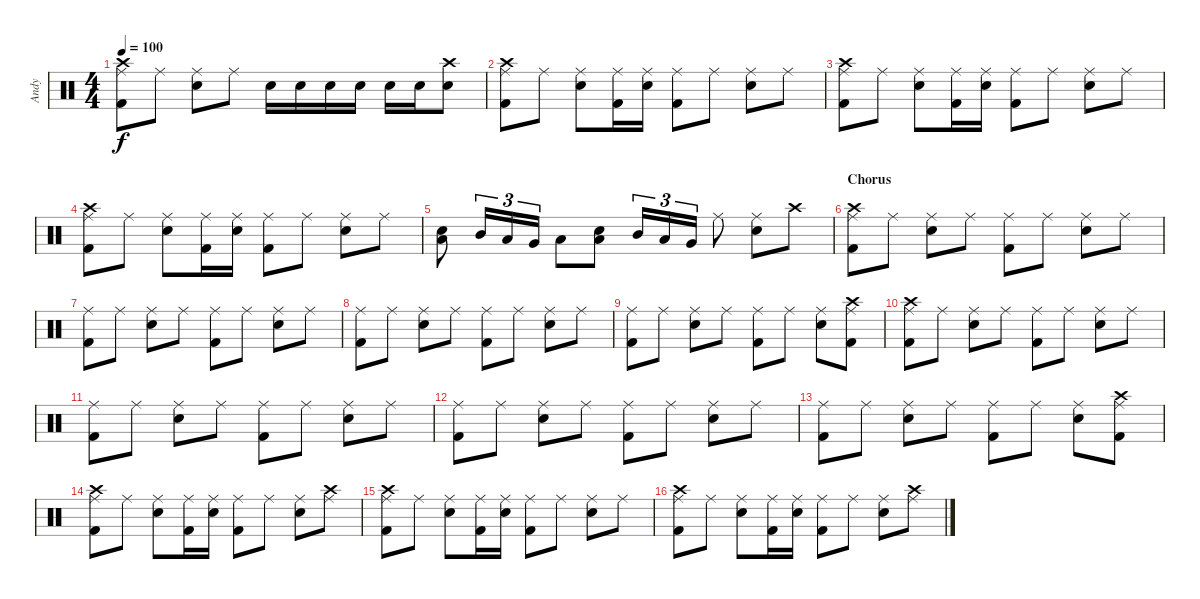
\track ("Andy" "Andy") {instrument percussion}
\staff {score}
\articulation defaults
\ts (4 4)
\tempo 100
\clef neutral
\ks c
("Crash high (hit)" "Ride (middle)" "Kick (hit) 2").8{dy f} "Ride (middle)".8 ("Ride (middle)" "Snare (hit) 2").8 "Ride (middle)".8 "Snare (hit) 2".16 "Snare (hit) 2".16 "Snare (hit) 2".16 "Snare (hit) 2".16 "Snare (hit) 2".16 "Snare (hit) 2".16 ("Crash high (hit)" "Snare (hit) 2").8 |
("Crash high (hit)" "Ride (middle)" "Kick (hit) 2").8 "Ride (middle)".8 ("Ride (middle)" "Snare (hit) 2").8 ("Ride (middle)" "Kick (hit) 2").16 ("Ride (middle)" "Snare (hit) 2").16 ("Ride (middle)" "Kick (hit) 2").8 "Ride (middle)".8 ("Ride (middle)" "Snare (hit) 2").8 "Ride (middle)".8 |
("Crash high (hit)" "Ride (middle)" "Kick (hit) 2").8 "Ride (middle)".8 ("Ride (middle)" "Snare (hit) 2").8 ("Ride (middle)" "Kick (hit) 2").16 ("Ride (middle)" "Snare (hit) 2").16 ("Ride (middle)" "Kick (hit) 2").8 "Ride (middle)".8 ("Ride (middle)" "Snare (hit) 2").8 "Ride (middle)".8 |
("Crash high (hit)" "Ride (middle)" "Kick (hit) 2").8 "Ride (middle)".8 ("Ride (middle)" "Snare (hit) 2").8 ("Ride (middle)" "Kick (hit) 2").16 ("Ride (middle)" "Snare (hit) 2").16 ("Ride (middle)" "Kick (hit) 2").8 "Ride (middle)".8 ("Ride (middle)" "Snare (hit) 2").8 "Ride (middle)".8 |
("Low Floor Tom (hit)" "Snare (hit) 2").8 "Mid Tom (hit)".16{tu (3 2)} "Low Tom (hit)".16{tu (3 2)} "Very Low Tom (hit)".16{tu (3 2)} "Low Floor Tom (hit)".8 ("Low Floor Tom (hit)" "Snare (hit) 2").8 "Mid Tom (hit)".16{tu (3 2)} "Low Tom (hit)".16{tu (3 2)} "Very Low Tom (hit)".16{tu (3 2)} "Ride (middle)".8 ("Ride (middle)" "Snare (hit) 2").8 "Crash high (hit)".8 |
\section ("" "Chorus")
("Crash high (hit)" "Ride (middle)" "Kick (hit) 2").8 "Ride (middle)".8 ("Ride (middle)" "Snare (hit) 2").8 "Ride (middle)".8 ("Ride (middle)" "Kick (hit) 2").8 "Ride (middle)".8 ("Ride (middle)" "Snare (hit) 2").8 "Ride (middle)".8 |
("Ride (middle)" "Kick (hit) 2").8 "Ride (middle)".8 ("Ride (middle)" "Snare (hit) 2").8 "Ride (middle)".8 ("Ride (middle)" "Kick (hit) 2").8 "Ride (middle)".8 ("Ride (middle)" "Snare (hit) 2").8 "Ride (middle)".8 |
("Ride (middle)" "Kick (hit) 2").8 "Ride (middle)".8 ("Ride (middle)" "Snare (hit) 2").8 "Ride (middle)".8 ("Ride (middle)" "Kick (hit) 2").8 "Ride (middle)".8 ("Ride (middle)" "Snare (hit) 2").8 "Ride (middle)".8 |
("Ride (middle)" "Kick (hit) 2").8 "Ride (middle)".8 ("Ride (middle)" "Snare (hit) 2").8 "Ride (middle)".8 ("Ride (middle)" "Kick (hit) 2").8 "Ride (middle)".8 ("Ride (middle)" "Snare (hit) 2").8 ("Crash high (hit)" "Ride (middle)" "Kick (hit) 2").8 |
("Crash high (hit)" "Ride (middle)" "Kick (hit) 2").8 "Ride (middle)".8 ("Ride (middle)" "Snare (hit) 2").8 "Ride (middle)".8 ("Ride (middle)" "Kick (hit) 2").8 "Ride (middle)".8 ("Ride (middle)" "Snare (hit) 2").8 "Ride (middle)".8 |
("Ride (middle)" "Kick (hit) 2").8 "Ride (middle)".8 ("Ride (middle)" "Snare (hit) 2").8 "Ride (middle)".8 ("Ride (middle)" "Kick (hit) 2").8 "Ride (middle)".8 ("Ride (middle)" "Snare (hit) 2").8 "Ride (middle)".8 |
("Ride (middle)" "Kick (hit) 2").8 "Ride (middle)".8 ("Ride (middle)" "Snare (hit) 2").8 "Ride (middle)".8 ("Ride (middle)" "Kick (hit) 2").8 "Ride (middle)".8 ("Ride (middle)" "Snare (hit) 2").8 "Ride (middle)".8 |
("Ride (middle)" "Kick (hit) 2").8 "Ride (middle)".8 ("Ride (middle)" "Snare (hit) 2").8 "Ride (middle)".8 ("Ride (middle)" "Kick (hit) 2").8 "Ride (middle)".8 ("Ride (middle)" "Snare (hit) 2").8 ("Crash high (hit)" "Ride (middle)" "Kick (hit) 2").8 |
("Crash high (hit)" "Ride (middle)" "Kick (hit) 2").8 "Ride (middle)".8 ("Ride (middle)" "Snare (hit) 2").8 ("Ride (middle)" "Kick (hit) 2").16 ("Ride (middle)" "Snare (hit) 2").16 ("Ride (middle)" "Kick (hit) 2").8 "Ride (middle)".8 ("Ride (middle)" "Snare (hit) 2").8 ("Crash high (hit)" "Ride (middle)").8 |
("Crash high (hit)" "Ride (middle)" "Kick (hit) 2").8 "Ride (middle)".8 ("Ride (middle)" "Snare (hit) 2").8 ("Ride (middle)" "Kick (hit) 2").16 ("Ride (middle)" "Snare (hit) 2").16 ("Ride (middle)" "Kick (hit) 2").8 "Ride (middle)".8 ("Ride (middle)" "Snare (hit) 2").8 "Ride (middle)".8 |
("Crash high (hit)" "Ride (middle)" "Kick (hit) 2").8 "Ride (middle)".8 ("Ride (middle)" "Snare (hit) 2").8 ("Ride (middle)" "Kick (hit) 2").16 ("Ride (middle)" "Snare (hit) 2").16 ("Ride (middle)" "Kick (hit) 2").8 "Ride (middle)".8 ("Ride (middle)" "Snare (hit) 2").8 ("Crash high (hit)" "Ride (middle)").8
